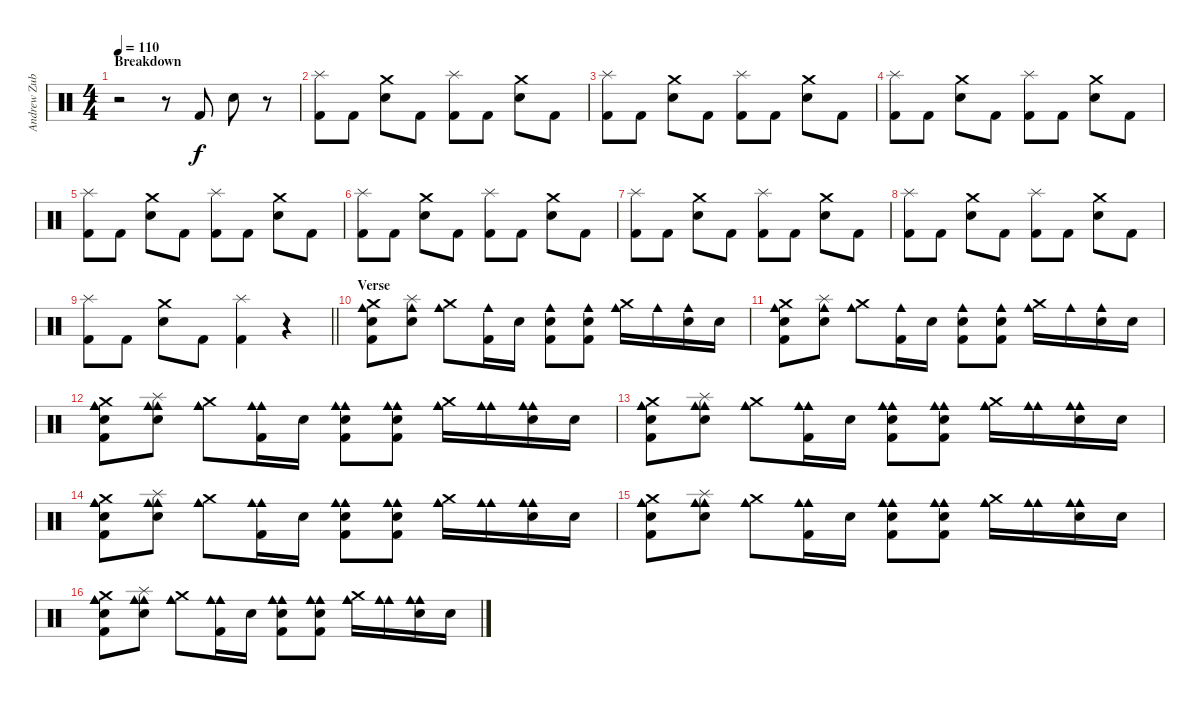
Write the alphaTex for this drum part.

\track ("Andrew Zubiszewski" "Andrew Zub") {instrument percussion}
\staff {score}
\articulation defaults
\ts (4 4)
\section ("" "Breakdown")
\tempo 110
\clef neutral
\ks c
r.2{dy f} r.8 "Kick (hit) 2".8 "Electric Snare (hit)".8 r.8 |
("Kick (hit) 2" "Splash (hit)").8 "Kick (hit) 2".8 ("Electric Snare (hit)" "Crash medium (hit)").8 "Kick (hit) 2".8 ("Kick (hit) 2" "Splash (hit)").8 "Kick (hit) 2".8 ("Electric Snare (hit)" "Crash medium (hit)").8 "Kick (hit) 2".8 |
("Kick (hit) 2" "Splash (hit)").8 "Kick (hit) 2".8 ("Electric Snare (hit)" "Crash medium (hit)").8 "Kick (hit) 2".8 ("Kick (hit) 2" "Splash (hit)").8 "Kick (hit) 2".8 ("Electric Snare (hit)" "Crash medium (hit)").8 "Kick (hit) 2".8 |
("Kick (hit) 2" "Splash (hit)").8 "Kick (hit) 2".8 ("Electric Snare (hit)" "Crash medium (hit)").8 "Kick (hit) 2".8 ("Kick (hit) 2" "Splash (hit)").8 "Kick (hit) 2".8 ("Electric Snare (hit)" "Crash medium (hit)").8 "Kick (hit) 2".8 |
("Kick (hit) 2" "Splash (hit)").8 "Kick (hit) 2".8 ("Electric Snare (hit)" "Crash medium (hit)").8 "Kick (hit) 2".8 ("Kick (hit) 2" "Splash (hit)").8 "Kick (hit) 2".8 ("Electric Snare (hit)" "Crash medium (hit)").8 "Kick (hit) 2".8 |
("Kick (hit) 2" "Splash (hit)").8 "Kick (hit) 2".8 ("Electric Snare (hit)" "Crash medium (hit)").8 "Kick (hit) 2".8 ("Kick (hit) 2" "Splash (hit)").8 "Kick (hit) 2".8 ("Electric Snare (hit)" "Crash medium (hit)").8 "Kick (hit) 2".8 |
("Kick (hit) 2" "Splash (hit)").8 "Kick (hit) 2".8 ("Electric Snare (hit)" "Crash medium (hit)").8 "Kick (hit) 2".8 ("Kick (hit) 2" "Splash (hit)").8 "Kick (hit) 2".8 ("Electric Snare (hit)" "Crash medium (hit)").8 "Kick (hit) 2".8 |
("Kick (hit) 2" "Splash (hit)").8 "Kick (hit) 2".8 ("Electric Snare (hit)" "Crash medium (hit)").8 "Kick (hit) 2".8 ("Kick (hit) 2" "Splash (hit)").8 "Kick (hit) 2".8 ("Electric Snare (hit)" "Crash medium (hit)").8 "Kick (hit) 2".8 |
\barLineRight lightlight
("Kick (hit) 2" "Splash (hit)").8 "Kick (hit) 2".8 ("Electric Snare (hit)" "Crash medium (hit)").8 "Kick (hit) 2".8 ("Kick (hit) 2" "Splash (hit)").4 r.4 |
\section ("" "Verse")
("Kick (hit) 2" "Electric Snare (hit)" "Cowbell medium (hit)" "Crash medium (hit)").8 ("Electric Snare (hit)" "Cowbell medium (hit)" "Splash (hit)").8 ("Cowbell medium (hit)" "Crash medium (hit)").8 ("Kick (hit) 2" "Cowbell medium (hit)").16 "Electric Snare (hit)".16 ("Kick (hit) 2" "Electric Snare (hit)" "Cowbell medium (hit)").8 ("Kick (hit) 2" "Electric Snare (hit)" "Cowbell medium (hit)").8 ("Cowbell medium (hit)" "Crash medium (hit)").16 "Cowbell medium (hit)".16 ("Electric Snare (hit)" "Cowbell medium (hit)").16 "Electric Snare (hit)".16 |
("Kick (hit) 2" "Electric Snare (hit)" "Cowbell medium (hit)" "Crash medium (hit)").8 ("Electric Snare (hit)" "Cowbell medium (hit)" "Splash (hit)").8 ("Cowbell medium (hit)" "Crash medium (hit)").8 ("Kick (hit) 2" "Cowbell medium (hit)").16 "Electric Snare (hit)".16 ("Kick (hit) 2" "Electric Snare (hit)" "Cowbell medium (hit)").8 ("Kick (hit) 2" "Electric Snare (hit)" "Cowbell medium (hit)").8 ("Cowbell medium (hit)" "Crash medium (hit)").16 "Cowbell medium (hit)".16 ("Electric Snare (hit)" "Cowbell medium (hit)").16 "Electric Snare (hit)".16 |
("Cowbell medium (hit)" "Kick (hit) 2" "Electric Snare (hit)" "Cowbell medium (hit)" "Crash medium (hit)").8 ("Cowbell medium (hit)" "Electric Snare (hit)" "Cowbell medium (hit)" "Splash (hit)").8 ("Cowbell medium (hit)" "Cowbell medium (hit)" "Crash medium (hit)").8 ("Cowbell medium (hit)" "Kick (hit) 2" "Cowbell medium (hit)").16 "Electric Snare (hit)".16 ("Cowbell medium (hit)" "Kick (hit) 2" "Electric Snare (hit)" "Cowbell medium (hit)").8 ("Cowbell medium (hit)" "Kick (hit) 2" "Electric Snare (hit)" "Cowbell medium (hit)").8 ("Cowbell medium (hit)" "Cowbell medium (hit)" "Crash medium (hit)").16 ("Cowbell medium (hit)" "Cowbell medium (hit)").16 ("Cowbell medium (hit)" "Electric Snare (hit)" "Cowbell medium (hit)").16 "Electric Snare (hit)".16 |
("Cowbell medium (hit)" "Kick (hit) 2" "Electric Snare (hit)" "Cowbell medium (hit)" "Crash medium (hit)").8 ("Cowbell medium (hit)" "Electric Snare (hit)" "Cowbell medium (hit)" "Splash (hit)").8 ("Cowbell medium (hit)" "Cowbell medium (hit)" "Crash medium (hit)").8 ("Cowbell medium (hit)" "Kick (hit) 2" "Cowbell medium (hit)").16 "Electric Snare (hit)".16 ("Cowbell medium (hit)" "Kick (hit) 2" "Electric Snare (hit)" "Cowbell medium (hit)").8 ("Cowbell medium (hit)" "Kick (hit) 2" "Electric Snare (hit)" "Cowbell medium (hit)").8 ("Cowbell medium (hit)" "Cowbell medium (hit)" "Crash medium (hit)").16 ("Cowbell medium (hit)" "Cowbell medium (hit)").16 ("Cowbell medium (hit)" "Electric Snare (hit)" "Cowbell medium (hit)").16 "Electric Snare (hit)".16 |
("Cowbell medium (hit)" "Kick (hit) 2" "Electric Snare (hit)" "Cowbell medium (hit)" "Crash medium (hit)").8 ("Cowbell medium (hit)" "Electric Snare (hit)" "Cowbell medium (hit)" "Splash (hit)").8 ("Cowbell medium (hit)" "Cowbell medium (hit)" "Crash medium (hit)").8 ("Cowbell medium (hit)" "Kick (hit) 2" "Cowbell medium (hit)").16 "Electric Snare (hit)".16 ("Cowbell medium (hit)" "Kick (hit) 2" "Electric Snare (hit)" "Cowbell medium (hit)").8 ("Cowbell medium (hit)" "Kick (hit) 2" "Electric Snare (hit)" "Cowbell medium (hit)").8 ("Cowbell medium (hit)" "Cowbell medium (hit)" "Crash medium (hit)").16 ("Cowbell medium (hit)" "Cowbell medium (hit)").16 ("Cowbell medium (hit)" "Electric Snare (hit)" "Cowbell medium (hit)").16 "Electric Snare (hit)".16 |
("Cowbell medium (hit)" "Kick (hit) 2" "Electric Snare (hit)" "Cowbell medium (hit)" "Crash medium (hit)").8 ("Cowbell medium (hit)" "Electric Snare (hit)" "Cowbell medium (hit)" "Splash (hit)").8 ("Cowbell medium (hit)" "Cowbell medium (hit)" "Crash medium (hit)").8 ("Cowbell medium (hit)" "Kick (hit) 2" "Cowbell medium (hit)").16 "Electric Snare (hit)".16 ("Cowbell medium (hit)" "Kick (hit) 2" "Electric Snare (hit)" "Cowbell medium (hit)").8 ("Cowbell medium (hit)" "Kick (hit) 2" "Electric Snare (hit)" "Cowbell medium (hit)").8 ("Cowbell medium (hit)" "Cowbell medium (hit)" "Crash medium (hit)").16 ("Cowbell medium (hit)" "Cowbell medium (hit)").16 ("Cowbell medium (hit)" "Electric Snare (hit)" "Cowbell medium (hit)").16 "Electric Snare (hit)".16 |
("Cowbell medium (hit)" "Kick (hit) 2" "Electric Snare (hit)" "Cowbell medium (hit)" "Crash medium (hit)").8 ("Cowbell medium (hit)" "Electric Snare (hit)" "Cowbell medium (hit)" "Splash (hit)").8 ("Cowbell medium (hit)" "Cowbell medium (hit)" "Crash medium (hit)").8 ("Cowbell medium (hit)" "Kick (hit) 2" "Cowbell medium (hit)").16 "Electric Snare (hit)".16 ("Cowbell medium (hit)" "Kick (hit) 2" "Electric Snare (hit)" "Cowbell medium (hit)").8 ("Cowbell medium (hit)" "Kick (hit) 2" "Electric Snare (hit)" "Cowbell medium (hit)").8 ("Cowbell medium (hit)" "Cowbell medium (hit)" "Crash medium (hit)").16 ("Cowbell medium (hit)" "Cowbell medium (hit)").16 ("Cowbell medium (hit)" "Electric Snare (hit)" "Cowbell medium (hit)").16 "Electric Snare (hit)".16
